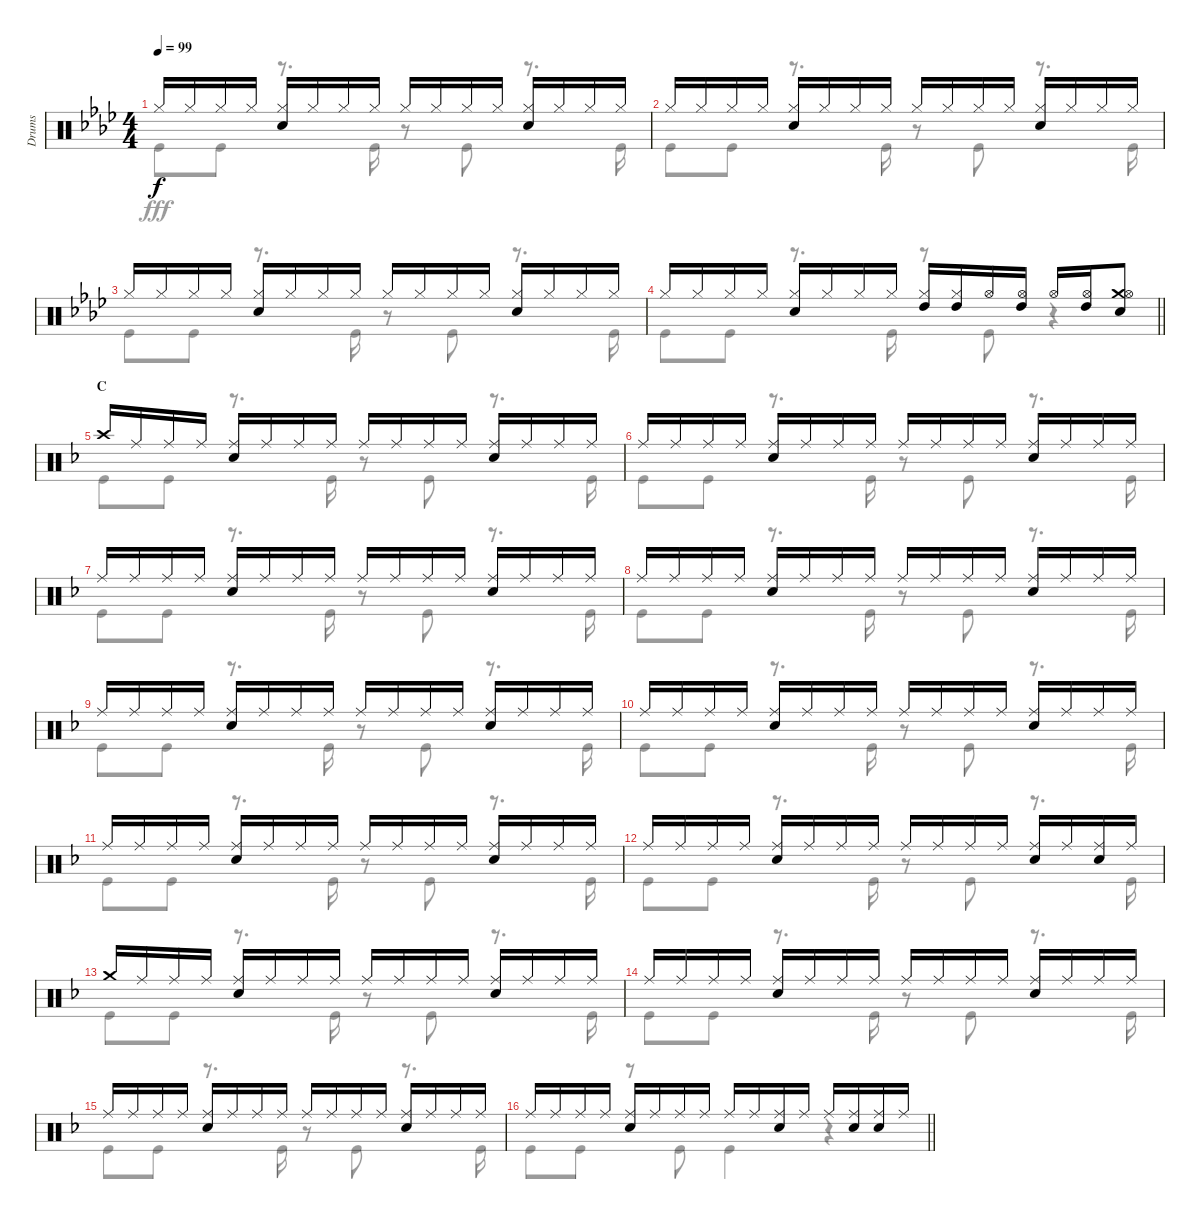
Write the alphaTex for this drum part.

\track ("Drums" "Drums") {instrument percussion}
\staff {score}
\articulation defaults
\voice
\ts (4 4)
\tempo 99
\clef neutral
\ks ab "Hi-Hat (closed)".16{dy f} "Hi-Hat (closed)".16 "Hi-Hat (closed)".16 "Hi-Hat (closed)".16
("Hi-Hat (closed)" "Snare (hit) 2").16 "Hi-Hat (closed)".16 "Hi-Hat (closed)".16 "Hi-Hat (closed)".16 "Hi-Hat (closed)".16 "Hi-Hat (closed)".16 "Hi-Hat (closed)".16 "Hi-Hat (closed)".16 ("Hi-Hat (closed)" "Snare (hit) 2").16 "Hi-Hat (closed)".16 "Hi-Hat (closed)".16 "Hi-Hat (closed)".16 |
"Hi-Hat (closed)".16 "Hi-Hat (closed)".16 "Hi-Hat (closed)".16 "Hi-Hat (closed)".16 ("Hi-Hat (closed)" "Snare (hit) 2").16 "Hi-Hat (closed)".16 "Hi-Hat (closed)".16 "Hi-Hat (closed)".16 "Hi-Hat (closed)".16 "Hi-Hat (closed)".16 "Hi-Hat (closed)".16 "Hi-Hat (closed)".16 ("Hi-Hat (closed)" "Snare (hit) 2").16 "Hi-Hat (closed)".16 "Hi-Hat (closed)".16 "Hi-Hat (closed)".16 |
"Hi-Hat (closed)".16 "Hi-Hat (closed)".16 "Hi-Hat (closed)".16 "Hi-Hat (closed)".16 ("Hi-Hat (closed)" "Snare (hit) 2").16 "Hi-Hat (closed)".16 "Hi-Hat (closed)".16 "Hi-Hat (closed)".16 "Hi-Hat (closed)".16 "Hi-Hat (closed)".16 "Hi-Hat (closed)".16 "Hi-Hat (closed)".16 ("Hi-Hat (closed)" "Snare (hit) 2").16 "Hi-Hat (closed)".16 "Hi-Hat (closed)".16 "Hi-Hat (closed)".16 |
\barLineRight lightlight "Hi-Hat (closed)".16 "Hi-Hat (closed)".16 "Hi-Hat (closed)".16 "Hi-Hat (closed)".16
("Hi-Hat (closed)" "Snare (hit) 2").16 "Hi-Hat (closed)".16 "Hi-Hat (closed)".16 "Hi-Hat (closed)".16 ("Hi-Hat (closed)" "High Tom (hit)").16 ("Hi-Hat (closed)" "High Tom (hit)").16 "Hi-Hat (open)".16 ("Hi-Hat (open)" "High Tom (hit)").16 "Hi-Hat (open)".16 ("Hi-Hat (open)" "High Tom (hit)").16 ("Crash medium (hit)" "Hi-Hat (open)" "Snare (hit) 2").8 |
\section ("" "C")
\ks f "Crash high (hit)".16 "Ride (middle)".16 "Ride (middle)".16 "Ride (middle)".16
("Ride (middle)" "Snare (hit) 2").16 "Ride (middle)".16 "Ride (middle)".16 "Ride (middle)".16 "Ride (middle)".16 "Ride (middle)".16 "Ride (middle)".16 "Ride (middle)".16 ("Ride (middle)" "Snare (hit) 2").16 "Ride (middle)".16 "Ride (middle)".16 "Ride (middle)".16 |
"Ride (middle)".16 "Ride (middle)".16 "Ride (middle)".16 "Ride (middle)".16 ("Ride (middle)" "Snare (hit) 2").16 "Ride (middle)".16 "Ride (middle)".16 "Ride (middle)".16 "Ride (middle)".16 "Ride (middle)".16 "Ride (middle)".16 "Ride (middle)".16 ("Ride (middle)" "Snare (hit) 2").16 "Ride (middle)".16 "Ride (middle)".16 "Ride (middle)".16 |
"Ride (middle)".16 "Ride (middle)".16 "Ride (middle)".16 "Ride (middle)".16 ("Ride (middle)" "Snare (hit) 2").16 "Ride (middle)".16 "Ride (middle)".16 "Ride (middle)".16 "Ride (middle)".16 "Ride (middle)".16 "Ride (middle)".16 "Ride (middle)".16 ("Ride (middle)" "Snare (hit) 2").16 "Ride (middle)".16 "Ride (middle)".16 "Ride (middle)".16 |
"Ride (middle)".16 "Ride (middle)".16 "Ride (middle)".16 "Ride (middle)".16 ("Ride (middle)" "Snare (hit) 2").16 "Ride (middle)".16 "Ride (middle)".16 "Ride (middle)".16 "Ride (middle)".16 "Ride (middle)".16 "Ride (middle)".16 "Ride (middle)".16 ("Ride (middle)" "Snare (hit) 2").16 "Ride (middle)".16 "Ride (middle)".16 "Ride (middle)".16 |
"Ride (middle)".16 "Ride (middle)".16 "Ride (middle)".16 "Ride (middle)".16 ("Ride (middle)" "Snare (hit) 2").16 "Ride (middle)".16 "Ride (middle)".16 "Ride (middle)".16 "Ride (middle)".16 "Ride (middle)".16 "Ride (middle)".16 "Ride (middle)".16 ("Ride (middle)" "Snare (hit) 2").16 "Ride (middle)".16 "Ride (middle)".16 "Ride (middle)".16 |
"Ride (middle)".16 "Ride (middle)".16 "Ride (middle)".16 "Ride (middle)".16 ("Ride (middle)" "Snare (hit) 2").16 "Ride (middle)".16 "Ride (middle)".16 "Ride (middle)".16 "Ride (middle)".16 "Ride (middle)".16 "Ride (middle)".16 "Ride (middle)".16 ("Ride (middle)" "Snare (hit) 2").16 "Ride (middle)".16 "Ride (middle)".16 "Ride (middle)".16 |
"Ride (middle)".16 "Ride (middle)".16 "Ride (middle)".16 "Ride (middle)".16 ("Ride (middle)" "Snare (hit) 2").16 "Ride (middle)".16 "Ride (middle)".16 "Ride (middle)".16 "Ride (middle)".16 "Ride (middle)".16 "Ride (middle)".16 "Ride (middle)".16 ("Ride (middle)" "Snare (hit) 2").16 "Ride (middle)".16 "Ride (middle)".16 "Ride (middle)".16 |
"Ride (middle)".16 "Ride (middle)".16 "Ride (middle)".16 "Ride (middle)".16 ("Ride (middle)" "Snare (hit) 2").16 "Ride (middle)".16 "Ride (middle)".16 "Ride (middle)".16 "Ride (middle)".16 "Ride (middle)".16 "Ride (middle)".16 "Ride (middle)".16 ("Ride (middle)" "Snare (hit) 2").16 "Ride (middle)".16 ("Ride (middle)" "Snare (hit) 2").16 "Ride (middle)".16 |
"Crash medium (hit)".16 "Ride (middle)".16 "Ride (middle)".16 "Ride (middle)".16 ("Ride (middle)" "Snare (hit) 2").16 "Ride (middle)".16 "Ride (middle)".16 "Ride (middle)".16 "Ride (middle)".16 "Ride (middle)".16 "Ride (middle)".16 "Ride (middle)".16 ("Ride (middle)" "Snare (hit) 2").16 "Ride (middle)".16 "Ride (middle)".16 "Ride (middle)".16 |
"Ride (middle)".16 "Ride (middle)".16 "Ride (middle)".16 "Ride (middle)".16 ("Ride (middle)" "Snare (hit) 2").16 "Ride (middle)".16 "Ride (middle)".16 "Ride (middle)".16 "Ride (middle)".16 "Ride (middle)".16 "Ride (middle)".16 "Ride (middle)".16 ("Ride (middle)" "Snare (hit) 2").16 "Ride (middle)".16 "Ride (middle)".16 "Ride (middle)".16 |
"Ride (middle)".16 "Ride (middle)".16 "Ride (middle)".16 "Ride (middle)".16 ("Ride (middle)" "Snare (hit) 2").16 "Ride (middle)".16 "Ride (middle)".16 "Ride (middle)".16 "Ride (middle)".16 "Ride (middle)".16 "Ride (middle)".16 "Ride (middle)".16 ("Ride (middle)" "Snare (hit) 2").16 "Ride (middle)".16 "Ride (middle)".16 "Ride (middle)".16 |
\barLineRight lightlight "Ride (middle)".16 "Ride (middle)".16 "Ride (middle)".16 "Ride (middle)".16
("Ride (middle)" "Snare (hit) 2").16 "Ride (middle)".16 "Ride (middle)".16 "Ride (middle)".16 "Ride (middle)".16 "Ride (middle)".16 ("Ride (middle)" "Snare (hit) 2").16 "Ride (middle)".16 "Ride (middle)".16 ("Ride (middle)" "Snare (hit) 2").16 ("Ride (middle)" "Snare (hit) 2").16 "Ride (middle)".16
\voice
\clef neutral
\ottava regular
\simile none
\ks ab "Kick (hit)".8{dy fff} "Kick (hit)".8
r.8{d} "Kick (hit)".16 r.8 "Kick (hit)".8 r.8{d} "Kick (hit)".16 |
"Kick (hit)".8 "Kick (hit)".8 r.8{d} "Kick (hit)".16 r.8 "Kick (hit)".8 r.8{d} "Kick (hit)".16 |
"Kick (hit)".8 "Kick (hit)".8 r.8{d} "Kick (hit)".16 r.8 "Kick (hit)".8 r.8{d} "Kick (hit)".16 |
\barLineRight lightlight "Kick (hit)".8 "Kick (hit)".8
r.8{d} "Kick (hit)".16 r.8 "Kick (hit)".8 r.4 |
\ks f "Kick (hit)".8 "Kick (hit)".8
r.8{d} "Kick (hit)".16 r.8 "Kick (hit)".8 r.8{d} "Kick (hit)".16 |
"Kick (hit)".8 "Kick (hit)".8 r.8{d} "Kick (hit)".16 r.8 "Kick (hit)".8 r.8{d} "Kick (hit)".16 |
"Kick (hit)".8 "Kick (hit)".8 r.8{d} "Kick (hit)".16 r.8 "Kick (hit)".8 r.8{d} "Kick (hit)".16 |
"Kick (hit)".8 "Kick (hit)".8 r.8{d} "Kick (hit)".16 r.8 "Kick (hit)".8 r.8{d} "Kick (hit)".16 |
"Kick (hit)".8 "Kick (hit)".8 r.8{d} "Kick (hit)".16 r.8 "Kick (hit)".8 r.8{d} "Kick (hit)".16 |
"Kick (hit)".8 "Kick (hit)".8 r.8{d} "Kick (hit)".16 r.8 "Kick (hit)".8 r.8{d} "Kick (hit)".16 |
"Kick (hit)".8 "Kick (hit)".8 r.8{d} "Kick (hit)".16 r.8 "Kick (hit)".8 r.8{d} "Kick (hit)".16 |
"Kick (hit)".8 "Kick (hit)".8 r.8{d} "Kick (hit)".16 r.8 "Kick (hit)".8 r.8{d} "Kick (hit)".16 |
"Kick (hit)".8 "Kick (hit)".8 r.8{d} "Kick (hit)".16 r.8 "Kick (hit)".8 r.8{d} "Kick (hit)".16 |
"Kick (hit)".8 "Kick (hit)".8 r.8{d} "Kick (hit)".16 r.8 "Kick (hit)".8 r.8{d} "Kick (hit)".16 |
"Kick (hit)".8 "Kick (hit)".8 r.8{d} "Kick (hit)".16 r.8 "Kick (hit)".8 r.8{d} "Kick (hit)".16 |
\barLineRight lightlight "Kick (hit)".8 "Kick (hit)".8
r.8 "Kick (hit)".8 "Kick (hit)".4 r.4
